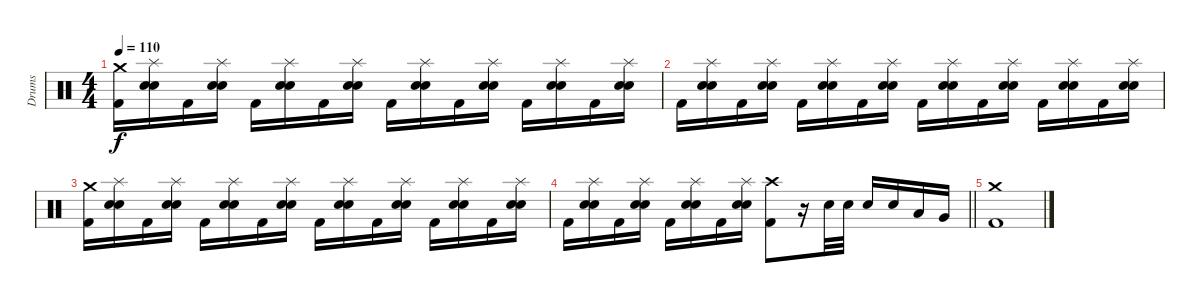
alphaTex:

\track ("Drums" "Drums") {instrument percussion}
\staff {score}
\articulation defaults
\ts (4 4)
\tempo 110
\clef neutral
\ks c
("Crash medium (hit)" "Kick (hit) 2").16{dy f} ("Splash (hit)" "Electric Snare (hit)" "Snare (hit) 2").16 "Kick (hit) 2".16 ("Splash (hit)" "Electric Snare (hit)" "Snare (hit) 2").16 "Kick (hit) 2".16 ("Splash (hit)" "Electric Snare (hit)" "Snare (hit) 2").16 "Kick (hit) 2".16 ("Splash (hit)" "Electric Snare (hit)" "Snare (hit) 2").16 "Kick (hit) 2".16 ("Splash (hit)" "Electric Snare (hit)" "Snare (hit) 2").16 "Kick (hit) 2".16 ("Splash (hit)" "Electric Snare (hit)" "Snare (hit) 2").16 "Kick (hit) 2".16 ("Splash (hit)" "Electric Snare (hit)" "Snare (hit) 2").16 "Kick (hit) 2".16 ("Splash (hit)" "Electric Snare (hit)" "Snare (hit) 2").16 |
"Kick (hit) 2".16 ("Splash (hit)" "Electric Snare (hit)" "Snare (hit) 2").16 "Kick (hit) 2".16 ("Splash (hit)" "Electric Snare (hit)" "Snare (hit) 2").16 "Kick (hit) 2".16 ("Splash (hit)" "Electric Snare (hit)" "Snare (hit) 2").16 "Kick (hit) 2".16 ("Splash (hit)" "Electric Snare (hit)" "Snare (hit) 2").16 "Kick (hit) 2".16 ("Splash (hit)" "Electric Snare (hit)" "Snare (hit) 2").16 "Kick (hit) 2".16 ("Splash (hit)" "Electric Snare (hit)" "Snare (hit) 2").16 "Kick (hit) 2".16 ("Splash (hit)" "Electric Snare (hit)" "Snare (hit) 2").16 "Kick (hit) 2".16 ("Splash (hit)" "Electric Snare (hit)" "Snare (hit) 2").16 |
("Crash medium (hit)" "Kick (hit) 2").16 ("Splash (hit)" "Electric Snare (hit)" "Snare (hit) 2").16 "Kick (hit) 2".16 ("Splash (hit)" "Electric Snare (hit)" "Snare (hit) 2").16 "Kick (hit) 2".16 ("Splash (hit)" "Electric Snare (hit)" "Snare (hit) 2").16 "Kick (hit) 2".16 ("Splash (hit)" "Electric Snare (hit)" "Snare (hit) 2").16 "Kick (hit) 2".16 ("Splash (hit)" "Electric Snare (hit)" "Snare (hit) 2").16 "Kick (hit) 2".16 ("Splash (hit)" "Electric Snare (hit)" "Snare (hit) 2").16 "Kick (hit) 2".16 ("Splash (hit)" "Electric Snare (hit)" "Snare (hit) 2").16 "Kick (hit) 2".16 ("Splash (hit)" "Electric Snare (hit)" "Snare (hit) 2").16 |
\barLineRight lightlight "Kick (hit) 2".16
("Splash (hit)" "Electric Snare (hit)" "Snare (hit) 2").16 "Kick (hit) 2".16 ("Splash (hit)" "Electric Snare (hit)" "Snare (hit) 2").16 "Kick (hit) 2".16 ("Splash (hit)" "Electric Snare (hit)" "Snare (hit) 2").16 "Kick (hit) 2".16 ("Splash (hit)" "Electric Snare (hit)" "Snare (hit) 2").16 ("Crash high (hit)" "Kick (hit) 2").8 r.16 "Electric Snare (hit)".32 "Electric Snare (hit)".32 "Electric Snare (hit)".16 "Electric Snare (hit)".16 "Low Tom (hit)".16 "Very Low Tom (hit)".16 |
("Crash medium (hit)" "Kick (hit) 2").1
